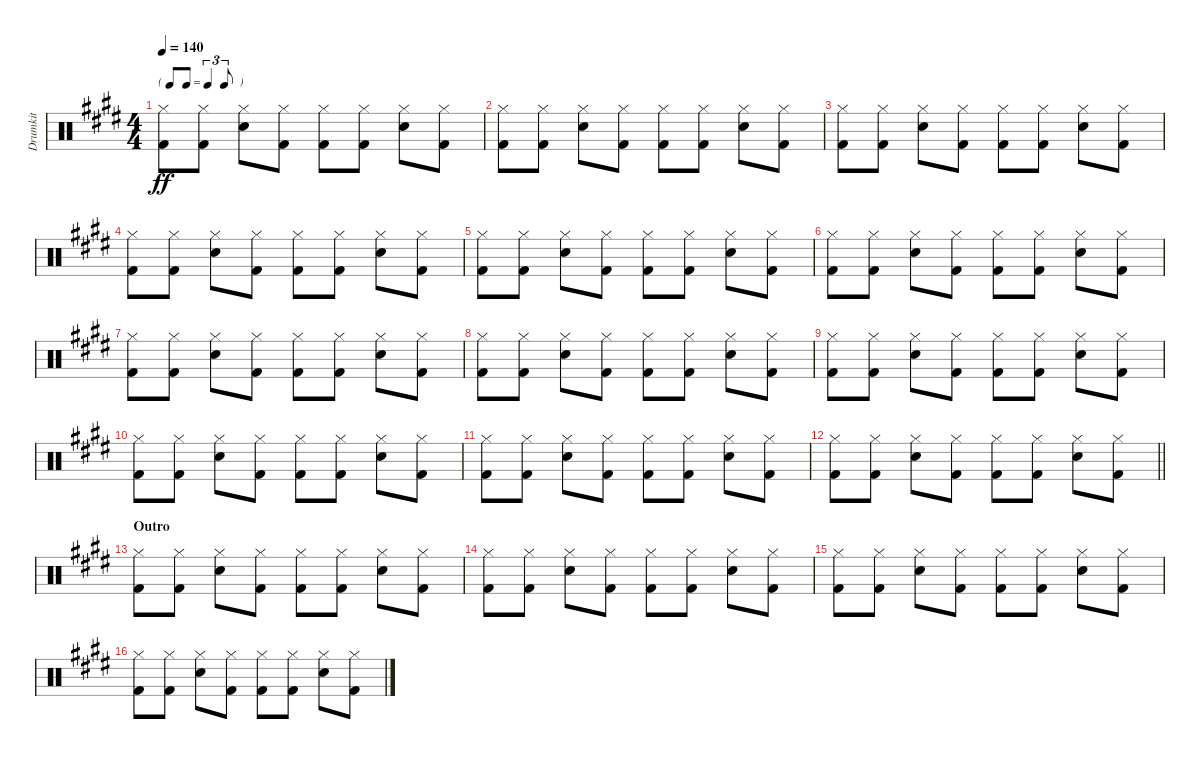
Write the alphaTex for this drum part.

\track ("Drumkit" "Drumkit") {instrument percussion}
\staff {score}
\articulation defaults
\ts (4 4)
\tf triplet8th
\tempo 140
\clef neutral
\ks e
("Hi-Hat (closed)" "Kick (hit) 2").8{dy ff} ("Hi-Hat (closed)" "Kick (hit) 2").8 ("Hi-Hat (closed)" "Snare (hit) 2").8 ("Hi-Hat (closed)" "Kick (hit) 2").8 ("Hi-Hat (closed)" "Kick (hit) 2").8 ("Hi-Hat (closed)" "Kick (hit) 2").8 ("Hi-Hat (closed)" "Snare (hit) 2").8 ("Hi-Hat (closed)" "Kick (hit) 2").8 |
("Hi-Hat (closed)" "Kick (hit) 2").8 ("Hi-Hat (closed)" "Kick (hit) 2").8 ("Hi-Hat (closed)" "Snare (hit) 2").8 ("Hi-Hat (closed)" "Kick (hit) 2").8 ("Hi-Hat (closed)" "Kick (hit) 2").8 ("Hi-Hat (closed)" "Kick (hit) 2").8 ("Hi-Hat (closed)" "Snare (hit) 2").8 ("Hi-Hat (closed)" "Kick (hit) 2").8 |
("Hi-Hat (closed)" "Kick (hit) 2").8 ("Hi-Hat (closed)" "Kick (hit) 2").8 ("Hi-Hat (closed)" "Snare (hit) 2").8 ("Hi-Hat (closed)" "Kick (hit) 2").8 ("Hi-Hat (closed)" "Kick (hit) 2").8 ("Hi-Hat (closed)" "Kick (hit) 2").8 ("Hi-Hat (closed)" "Snare (hit) 2").8 ("Hi-Hat (closed)" "Kick (hit) 2").8 |
("Hi-Hat (closed)" "Kick (hit) 2").8 ("Hi-Hat (closed)" "Kick (hit) 2").8 ("Hi-Hat (closed)" "Snare (hit) 2").8 ("Hi-Hat (closed)" "Kick (hit) 2").8 ("Hi-Hat (closed)" "Kick (hit) 2").8 ("Hi-Hat (closed)" "Kick (hit) 2").8 ("Hi-Hat (closed)" "Snare (hit) 2").8 ("Hi-Hat (closed)" "Kick (hit) 2").8 |
("Hi-Hat (closed)" "Kick (hit) 2").8 ("Hi-Hat (closed)" "Kick (hit) 2").8 ("Hi-Hat (closed)" "Snare (hit) 2").8 ("Hi-Hat (closed)" "Kick (hit) 2").8 ("Hi-Hat (closed)" "Kick (hit) 2").8 ("Hi-Hat (closed)" "Kick (hit) 2").8 ("Hi-Hat (closed)" "Snare (hit) 2").8 ("Hi-Hat (closed)" "Kick (hit) 2").8 |
("Hi-Hat (closed)" "Kick (hit) 2").8 ("Hi-Hat (closed)" "Kick (hit) 2").8 ("Hi-Hat (closed)" "Snare (hit) 2").8 ("Hi-Hat (closed)" "Kick (hit) 2").8 ("Hi-Hat (closed)" "Kick (hit) 2").8 ("Hi-Hat (closed)" "Kick (hit) 2").8 ("Hi-Hat (closed)" "Snare (hit) 2").8 ("Hi-Hat (closed)" "Kick (hit) 2").8 |
("Hi-Hat (closed)" "Kick (hit) 2").8 ("Hi-Hat (closed)" "Kick (hit) 2").8 ("Hi-Hat (closed)" "Snare (hit) 2").8 ("Hi-Hat (closed)" "Kick (hit) 2").8 ("Hi-Hat (closed)" "Kick (hit) 2").8 ("Hi-Hat (closed)" "Kick (hit) 2").8 ("Hi-Hat (closed)" "Snare (hit) 2").8 ("Hi-Hat (closed)" "Kick (hit) 2").8 |
("Hi-Hat (closed)" "Kick (hit) 2").8 ("Hi-Hat (closed)" "Kick (hit) 2").8 ("Hi-Hat (closed)" "Snare (hit) 2").8 ("Hi-Hat (closed)" "Kick (hit) 2").8 ("Hi-Hat (closed)" "Kick (hit) 2").8 ("Hi-Hat (closed)" "Kick (hit) 2").8 ("Hi-Hat (closed)" "Snare (hit) 2").8 ("Hi-Hat (closed)" "Kick (hit) 2").8 |
("Hi-Hat (closed)" "Kick (hit) 2").8 ("Hi-Hat (closed)" "Kick (hit) 2").8 ("Hi-Hat (closed)" "Snare (hit) 2").8 ("Hi-Hat (closed)" "Kick (hit) 2").8 ("Hi-Hat (closed)" "Kick (hit) 2").8 ("Hi-Hat (closed)" "Kick (hit) 2").8 ("Hi-Hat (closed)" "Snare (hit) 2").8 ("Hi-Hat (closed)" "Kick (hit) 2").8 |
("Hi-Hat (closed)" "Kick (hit) 2").8 ("Hi-Hat (closed)" "Kick (hit) 2").8 ("Hi-Hat (closed)" "Snare (hit) 2").8 ("Hi-Hat (closed)" "Kick (hit) 2").8 ("Hi-Hat (closed)" "Kick (hit) 2").8 ("Hi-Hat (closed)" "Kick (hit) 2").8 ("Hi-Hat (closed)" "Snare (hit) 2").8 ("Hi-Hat (closed)" "Kick (hit) 2").8 |
("Hi-Hat (closed)" "Kick (hit) 2").8 ("Hi-Hat (closed)" "Kick (hit) 2").8 ("Hi-Hat (closed)" "Snare (hit) 2").8 ("Hi-Hat (closed)" "Kick (hit) 2").8 ("Hi-Hat (closed)" "Kick (hit) 2").8 ("Hi-Hat (closed)" "Kick (hit) 2").8 ("Hi-Hat (closed)" "Snare (hit) 2").8 ("Hi-Hat (closed)" "Kick (hit) 2").8 |
\barLineRight lightlight
("Hi-Hat (closed)" "Kick (hit) 2").8 ("Hi-Hat (closed)" "Kick (hit) 2").8 ("Hi-Hat (closed)" "Snare (hit) 2").8 ("Hi-Hat (closed)" "Kick (hit) 2").8 ("Hi-Hat (closed)" "Kick (hit) 2").8 ("Hi-Hat (closed)" "Kick (hit) 2").8 ("Hi-Hat (closed)" "Snare (hit) 2").8 ("Hi-Hat (closed)" "Kick (hit) 2").8 |
\section ("" "Outro")
("Hi-Hat (closed)" "Kick (hit) 2").8 ("Hi-Hat (closed)" "Kick (hit) 2").8 ("Hi-Hat (closed)" "Snare (hit) 2").8 ("Hi-Hat (closed)" "Kick (hit) 2").8 ("Hi-Hat (closed)" "Kick (hit) 2").8 ("Hi-Hat (closed)" "Kick (hit) 2").8 ("Hi-Hat (closed)" "Snare (hit) 2").8 ("Hi-Hat (closed)" "Kick (hit) 2").8 |
("Hi-Hat (closed)" "Kick (hit) 2").8 ("Hi-Hat (closed)" "Kick (hit) 2").8 ("Hi-Hat (closed)" "Snare (hit) 2").8 ("Hi-Hat (closed)" "Kick (hit) 2").8 ("Hi-Hat (closed)" "Kick (hit) 2").8 ("Hi-Hat (closed)" "Kick (hit) 2").8 ("Hi-Hat (closed)" "Snare (hit) 2").8 ("Hi-Hat (closed)" "Kick (hit) 2").8 |
("Hi-Hat (closed)" "Kick (hit) 2").8 ("Hi-Hat (closed)" "Kick (hit) 2").8 ("Hi-Hat (closed)" "Snare (hit) 2").8 ("Hi-Hat (closed)" "Kick (hit) 2").8 ("Hi-Hat (closed)" "Kick (hit) 2").8 ("Hi-Hat (closed)" "Kick (hit) 2").8 ("Hi-Hat (closed)" "Snare (hit) 2").8 ("Hi-Hat (closed)" "Kick (hit) 2").8 |
("Hi-Hat (closed)" "Kick (hit) 2").8 ("Hi-Hat (closed)" "Kick (hit) 2").8 ("Hi-Hat (closed)" "Snare (hit) 2").8 ("Hi-Hat (closed)" "Kick (hit) 2").8 ("Hi-Hat (closed)" "Kick (hit) 2").8 ("Hi-Hat (closed)" "Kick (hit) 2").8 ("Hi-Hat (closed)" "Snare (hit) 2").8 ("Hi-Hat (closed)" "Kick (hit) 2").8
